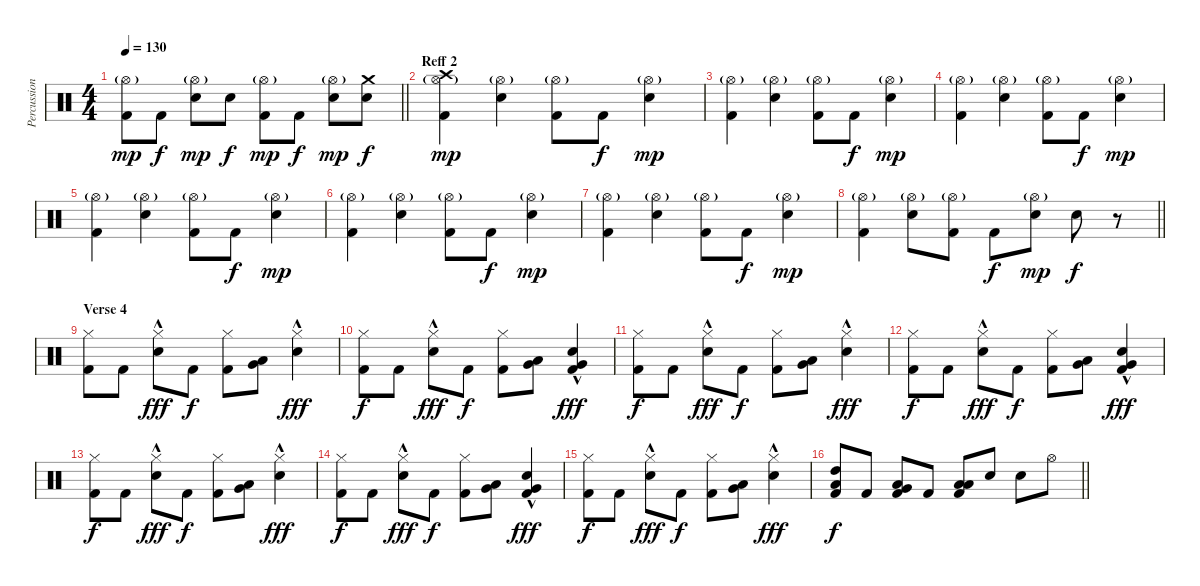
\track ("Percussion 1" "Percussion") {instrument percussion}
\staff {score}
\articulation defaults
\ts (4 4)
\tempo 130
\clef neutral
\barLineRight lightlight
\ks c
("Hi-Hat (open)"{g} "Kick (hit) 2").8{dy mp} "Kick (hit) 2".8{dy f} ("Hi-Hat (open)"{g} "Electric Snare (hit)").8{dy mp} "Electric Snare (hit)".8{dy f} ("Hi-Hat (open)"{g} "Kick (hit) 2").8{dy mp} "Kick (hit) 2".8{dy f} ("Hi-Hat (open)"{g} "Electric Snare (hit)").8{dy mp} ("Electric Snare (hit)" "Crash medium (hit)").8{dy f} |
\section ("" "Reff 2")
("Hi-Hat (open)"{g} "Crash high (hit)" "Kick (hit) 2").4{dy mp} ("Hi-Hat (open)"{g} "Electric Snare (hit)").4 ("Hi-Hat (open)"{g} "Kick (hit) 2").8 "Kick (hit) 2".8{dy f} ("Hi-Hat (open)"{g} "Electric Snare (hit)").4{dy mp} |
("Hi-Hat (open)"{g} "Kick (hit) 2").4 ("Hi-Hat (open)"{g} "Electric Snare (hit)").4 ("Hi-Hat (open)"{g} "Kick (hit) 2").8 "Kick (hit) 2".8{dy f} ("Hi-Hat (open)"{g} "Electric Snare (hit)").4{dy mp} |
("Hi-Hat (open)"{g} "Kick (hit) 2").4 ("Hi-Hat (open)"{g} "Electric Snare (hit)").4 ("Hi-Hat (open)"{g} "Kick (hit) 2").8 "Kick (hit) 2".8{dy f} ("Hi-Hat (open)"{g} "Electric Snare (hit)").4{dy mp} |
("Hi-Hat (open)"{g} "Kick (hit) 2").4 ("Hi-Hat (open)"{g} "Electric Snare (hit)").4 ("Hi-Hat (open)"{g} "Kick (hit) 2").8 "Kick (hit) 2".8{dy f} ("Hi-Hat (open)"{g} "Electric Snare (hit)").4{dy mp} |
("Hi-Hat (open)"{g} "Kick (hit) 2").4 ("Hi-Hat (open)"{g} "Electric Snare (hit)").4 ("Hi-Hat (open)"{g} "Kick (hit) 2").8 "Kick (hit) 2".8{dy f} ("Hi-Hat (open)"{g} "Electric Snare (hit)").4{dy mp} |
("Hi-Hat (open)"{g} "Kick (hit) 2").4 ("Hi-Hat (open)"{g} "Electric Snare (hit)").4 ("Hi-Hat (open)"{g} "Kick (hit) 2").8 "Kick (hit) 2".8{dy f} ("Hi-Hat (open)"{g} "Electric Snare (hit)").4{dy mp} |
\barLineRight lightlight
("Hi-Hat (open)"{g} "Kick (hit) 2").4 ("Hi-Hat (open)"{g} "Electric Snare (hit)").8 ("Hi-Hat (open)"{g} "Kick (hit) 2").8 "Kick (hit) 2".8{dy f} ("Hi-Hat (open)"{g} "Electric Snare (hit)").8{dy mp} "Electric Snare (hit)".8{dy f} r.8 |
\section ("" "Verse 4")
("Hi-Hat (closed)" "Kick (hit) 2").8 "Kick (hit) 2".8 ("Hi-Hat (closed)" "Electric Snare (hit)"{hac}).8{dy fff} "Kick (hit) 2".8{dy f} ("Hi-Hat (closed)" "Kick (hit) 2").8 ("Very Low Tom (hit)" "Low Floor Tom (hit)").8 ("Hi-Hat (closed)" "Electric Snare (hit)"{hac}).4{dy fff} |
("Hi-Hat (closed)" "Kick (hit) 2").8{dy f} "Kick (hit) 2".8 ("Hi-Hat (closed)" "Electric Snare (hit)"{hac}).8{dy fff} "Kick (hit) 2".8{dy f} ("Hi-Hat (closed)" "Kick (hit) 2").8 ("Very Low Tom (hit)" "Low Floor Tom (hit)").8 ("Electric Snare (hit)"{hac} "Very Low Tom (hit)"{hac} "Kick (hit) 2").4{dy fff} |
("Hi-Hat (closed)" "Kick (hit) 2").8{dy f} "Kick (hit) 2".8 ("Hi-Hat (closed)" "Electric Snare (hit)"{hac}).8{dy fff} "Kick (hit) 2".8{dy f} ("Hi-Hat (closed)" "Kick (hit) 2").8 ("Very Low Tom (hit)" "Low Floor Tom (hit)").8 ("Hi-Hat (closed)" "Electric Snare (hit)"{hac}).4{dy fff} |
("Hi-Hat (closed)" "Kick (hit) 2").8{dy f} "Kick (hit) 2".8 ("Hi-Hat (closed)" "Electric Snare (hit)"{hac}).8{dy fff} "Kick (hit) 2".8{dy f} ("Hi-Hat (closed)" "Kick (hit) 2").8 ("Very Low Tom (hit)" "Low Floor Tom (hit)").8 ("Electric Snare (hit)"{hac} "Very Low Tom (hit)"{hac} "Kick (hit) 2").4{dy fff} |
("Hi-Hat (closed)" "Kick (hit) 2").8{dy f} "Kick (hit) 2".8 ("Hi-Hat (closed)" "Electric Snare (hit)"{hac}).8{dy fff} "Kick (hit) 2".8{dy f} ("Hi-Hat (closed)" "Kick (hit) 2").8 ("Very Low Tom (hit)" "Low Floor Tom (hit)").8 ("Hi-Hat (closed)" "Electric Snare (hit)"{hac}).4{dy fff} |
("Hi-Hat (closed)" "Kick (hit) 2").8{dy f} "Kick (hit) 2".8 ("Hi-Hat (closed)" "Electric Snare (hit)"{hac}).8{dy fff} "Kick (hit) 2".8{dy f} ("Hi-Hat (closed)" "Kick (hit) 2").8 ("Very Low Tom (hit)" "Low Floor Tom (hit)").8 ("Electric Snare (hit)"{hac} "Very Low Tom (hit)"{hac} "Kick (hit) 2").4{dy fff} |
("Hi-Hat (closed)" "Kick (hit) 2").8{dy f} "Kick (hit) 2".8 ("Hi-Hat (closed)" "Electric Snare (hit)"{hac}).8{dy fff} "Kick (hit) 2".8{dy f} ("Hi-Hat (closed)" "Kick (hit) 2").8 ("Very Low Tom (hit)" "Low Floor Tom (hit)").8 ("Hi-Hat (closed)" "Electric Snare (hit)"{hac}).4{dy fff} |
\barLineRight lightlight
("Low Tom (hit)" "High Tom (hit)" "Kick (hit) 2").8{dy f} "Kick (hit) 2".8 ("Low Tom (hit)" "Very Low Tom (hit)" "Kick (hit) 2").8 "Kick (hit) 2".8 ("Low Tom (hit)" "Low Floor Tom (hit)" "Kick (hit) 2").8 "Electric Snare (hit)".8 "Electric Snare (hit)".8 "Hi-Hat (open)".8
